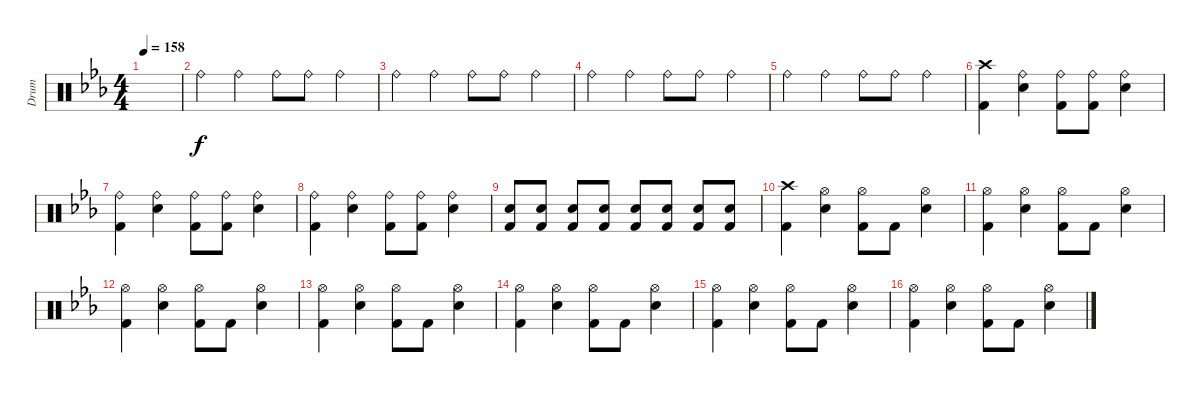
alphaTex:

\track ("Drum" "Drum") {instrument percussion}
\staff {score}
\articulation defaults
\ts (4 4)
\tempo 158
\clef neutral
\ks eb
|
"Ride (bell)".4 "Ride (bell)".4 "Ride (bell)".8 "Ride (bell)".8 "Ride (bell)".4 |
"Ride (bell)".4 "Ride (bell)".4 "Ride (bell)".8 "Ride (bell)".8 "Ride (bell)".4 |
"Ride (bell)".4 "Ride (bell)".4 "Ride (bell)".8 "Ride (bell)".8 "Ride (bell)".4 |
"Ride (bell)".4 "Ride (bell)".4 "Ride (bell)".8 "Ride (bell)".8 "Ride (bell)".4 |
("Crash high (hit)" "Kick (hit) 2").4 ("Ride (bell)" "Snare (hit) 2").4 ("Ride (bell)" "Kick (hit) 2").8 ("Ride (bell)" "Kick (hit) 2").8 ("Ride (bell)" "Snare (hit) 2").4 |
("Ride (bell)" "Kick (hit) 2").4 ("Ride (bell)" "Snare (hit) 2").4 ("Ride (bell)" "Kick (hit) 2").8 ("Ride (bell)" "Kick (hit) 2").8 ("Ride (bell)" "Snare (hit) 2").4 |
("Ride (bell)" "Kick (hit) 2").4 ("Ride (bell)" "Snare (hit) 2").4 ("Ride (bell)" "Kick (hit) 2").8 ("Ride (bell)" "Kick (hit) 2").8 ("Ride (bell)" "Snare (hit) 2").4 |
("Snare (hit) 2" "Kick (hit) 2").8 ("Snare (hit) 2" "Kick (hit) 2").8 ("Snare (hit) 2" "Kick (hit) 2").8 ("Snare (hit) 2" "Kick (hit) 2").8 ("Snare (hit) 2" "Kick (hit) 2").8 ("Snare (hit) 2" "Kick (hit) 2").8 ("Snare (hit) 2" "Kick (hit) 2").8 ("Snare (hit) 2" "Kick (hit) 2").8 |
("Crash high (hit)" "Kick (hit) 2").4 ("Hi-Hat (open)" "Snare (hit) 2").4 ("Hi-Hat (open)" "Kick (hit) 2").8 "Kick (hit) 2".8 ("Hi-Hat (open)" "Snare (hit) 2").4 |
("Hi-Hat (open)" "Kick (hit) 2").4 ("Hi-Hat (open)" "Snare (hit) 2").4 ("Hi-Hat (open)" "Kick (hit) 2").8 "Kick (hit) 2".8 ("Hi-Hat (open)" "Snare (hit) 2").4 |
("Hi-Hat (open)" "Kick (hit) 2").4 ("Hi-Hat (open)" "Snare (hit) 2").4 ("Hi-Hat (open)" "Kick (hit) 2").8 "Kick (hit) 2".8 ("Hi-Hat (open)" "Snare (hit) 2").4 |
("Hi-Hat (open)" "Kick (hit) 2").4 ("Hi-Hat (open)" "Snare (hit) 2").4 ("Hi-Hat (open)" "Kick (hit) 2").8 "Kick (hit) 2".8 ("Hi-Hat (open)" "Snare (hit) 2").4 |
("Hi-Hat (open)" "Kick (hit) 2").4 ("Hi-Hat (open)" "Snare (hit) 2").4 ("Hi-Hat (open)" "Kick (hit) 2").8 "Kick (hit) 2".8 ("Hi-Hat (open)" "Snare (hit) 2").4 |
("Hi-Hat (open)" "Kick (hit) 2").4 ("Hi-Hat (open)" "Snare (hit) 2").4 ("Hi-Hat (open)" "Kick (hit) 2").8 "Kick (hit) 2".8 ("Hi-Hat (open)" "Snare (hit) 2").4 |
("Hi-Hat (open)" "Kick (hit) 2").4 ("Hi-Hat (open)" "Snare (hit) 2").4 ("Hi-Hat (open)" "Kick (hit) 2").8 "Kick (hit) 2".8 ("Hi-Hat (open)" "Snare (hit) 2").4
